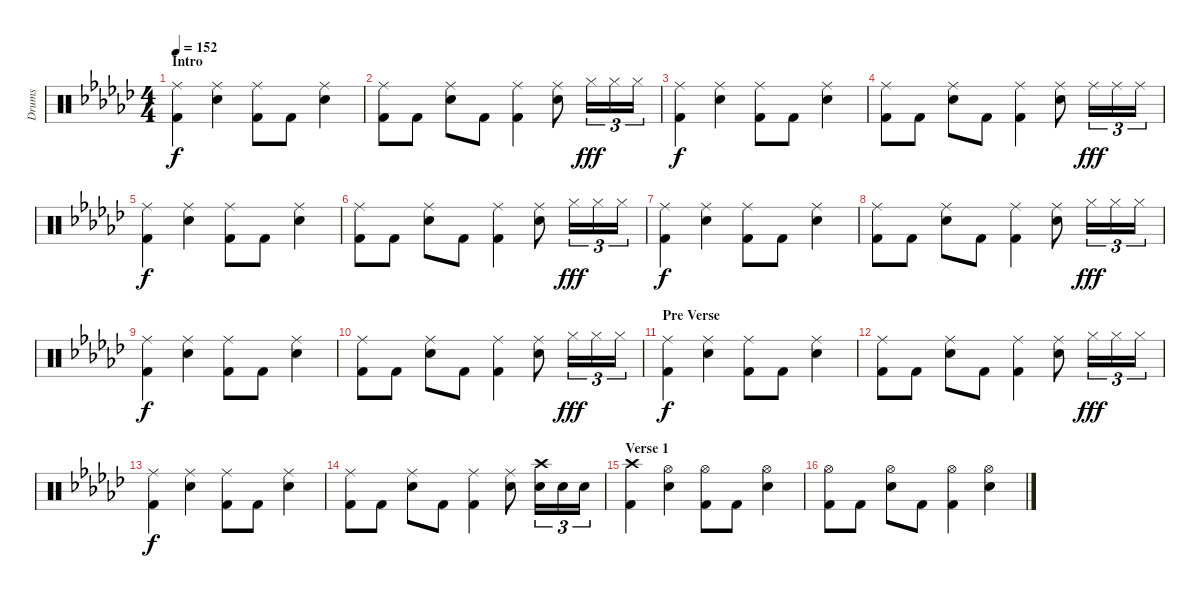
\track ("Drums" "Drums") {instrument percussion}
\staff {score}
\articulation defaults
\ts (4 4)
\section ("" "Intro")
\tempo 152
\clef neutral
\ks gb
("Ride (middle)" "Kick (hit) 2").4{dy f} ("Ride (middle)" "Electric Snare (hit)").4 ("Ride (middle)" "Kick (hit) 2").8 "Kick (hit) 2".8 ("Ride (middle)" "Electric Snare (hit)").4 |
("Ride (middle)" "Kick (hit) 2").8 "Kick (hit) 2".8 ("Ride (middle)" "Electric Snare (hit)").8 "Kick (hit) 2".8 ("Ride (middle)" "Kick (hit) 2").4 ("Ride (middle)" "Electric Snare (hit)").8 "Hi-Hat (closed)".16{tu (3 2) dy fff} "Hi-Hat (closed)".16{tu (3 2)} "Hi-Hat (closed)".16{tu (3 2)} |
("Ride (middle)" "Kick (hit) 2").4{dy f} ("Ride (middle)" "Electric Snare (hit)").4 ("Ride (middle)" "Kick (hit) 2").8 "Kick (hit) 2".8 ("Ride (middle)" "Electric Snare (hit)").4 |
("Ride (middle)" "Kick (hit) 2").8 "Kick (hit) 2".8 ("Ride (middle)" "Electric Snare (hit)").8 "Kick (hit) 2".8 ("Ride (middle)" "Kick (hit) 2").4 ("Ride (middle)" "Electric Snare (hit)").8 "Ride (middle)".16{tu (3 2) dy fff} "Ride (middle)".16{tu (3 2)} "Ride (middle)".16{tu (3 2)} |
("Ride (middle)" "Kick (hit) 2").4{dy f} ("Ride (middle)" "Electric Snare (hit)").4 ("Ride (middle)" "Kick (hit) 2").8 "Kick (hit) 2".8 ("Ride (middle)" "Electric Snare (hit)").4 |
("Ride (middle)" "Kick (hit) 2").8 "Kick (hit) 2".8 ("Ride (middle)" "Electric Snare (hit)").8 "Kick (hit) 2".8 ("Ride (middle)" "Kick (hit) 2").4 ("Ride (middle)" "Electric Snare (hit)").8 "Hi-Hat (closed)".16{tu (3 2) dy fff} "Hi-Hat (closed)".16{tu (3 2)} "Hi-Hat (closed)".16{tu (3 2)} |
("Ride (middle)" "Kick (hit) 2").4{dy f} ("Ride (middle)" "Electric Snare (hit)").4 ("Ride (middle)" "Kick (hit) 2").8 "Kick (hit) 2".8 ("Ride (middle)" "Electric Snare (hit)").4 |
("Ride (middle)" "Kick (hit) 2").8 "Kick (hit) 2".8 ("Ride (middle)" "Electric Snare (hit)").8 "Kick (hit) 2".8 ("Ride (middle)" "Kick (hit) 2").4 ("Ride (middle)" "Electric Snare (hit)").8 "Hi-Hat (closed)".16{tu (3 2) dy fff} "Hi-Hat (closed)".16{tu (3 2)} "Hi-Hat (closed)".16{tu (3 2)} |
("Ride (middle)" "Kick (hit) 2").4{dy f} ("Ride (middle)" "Electric Snare (hit)").4 ("Ride (middle)" "Kick (hit) 2").8 "Kick (hit) 2".8 ("Ride (middle)" "Electric Snare (hit)").4 |
("Ride (middle)" "Kick (hit) 2").8 "Kick (hit) 2".8 ("Ride (middle)" "Electric Snare (hit)").8 "Kick (hit) 2".8 ("Ride (middle)" "Kick (hit) 2").4 ("Ride (middle)" "Electric Snare (hit)").8 "Hi-Hat (closed)".16{tu (3 2) dy fff} "Hi-Hat (closed)".16{tu (3 2)} "Hi-Hat (closed)".16{tu (3 2)} |
\section ("" "Pre Verse")
("Ride (middle)" "Kick (hit) 2").4{dy f} ("Ride (middle)" "Electric Snare (hit)").4 ("Ride (middle)" "Kick (hit) 2").8 "Kick (hit) 2".8 ("Ride (middle)" "Electric Snare (hit)").4 |
("Ride (middle)" "Kick (hit) 2").8 "Kick (hit) 2".8 ("Ride (middle)" "Electric Snare (hit)").8 "Kick (hit) 2".8 ("Ride (middle)" "Kick (hit) 2").4 ("Ride (middle)" "Electric Snare (hit)").8 "Hi-Hat (closed)".16{tu (3 2) dy fff} "Hi-Hat (closed)".16{tu (3 2)} "Hi-Hat (closed)".16{tu (3 2)} |
("Ride (middle)" "Kick (hit) 2").4{dy f} ("Ride (middle)" "Electric Snare (hit)").4 ("Ride (middle)" "Kick (hit) 2").8 "Kick (hit) 2".8 ("Ride (middle)" "Electric Snare (hit)").4 |
("Ride (middle)" "Kick (hit) 2").8 "Kick (hit) 2".8 ("Ride (middle)" "Electric Snare (hit)").8 "Kick (hit) 2".8 ("Ride (middle)" "Kick (hit) 2").4 ("Ride (middle)" "Electric Snare (hit)").8 ("Crash high (hit)" "Electric Snare (hit)").16{tu (3 2)} "Electric Snare (hit)".16{tu (3 2)} "Electric Snare (hit)".16{tu (3 2)} |
\section ("" "Verse 1")
("Crash high (hit)" "Kick (hit) 2").4 ("Hi-Hat (open)" "Electric Snare (hit)").4 ("Hi-Hat (open)" "Kick (hit) 2").8 "Kick (hit) 2".8 ("Hi-Hat (open)" "Electric Snare (hit)").4 |
("Hi-Hat (open)" "Kick (hit) 2").8 "Kick (hit) 2".8 ("Hi-Hat (open)" "Electric Snare (hit)").8 "Kick (hit) 2".8 ("Hi-Hat (open)" "Kick (hit) 2").4 ("Hi-Hat (open)" "Electric Snare (hit)").4
